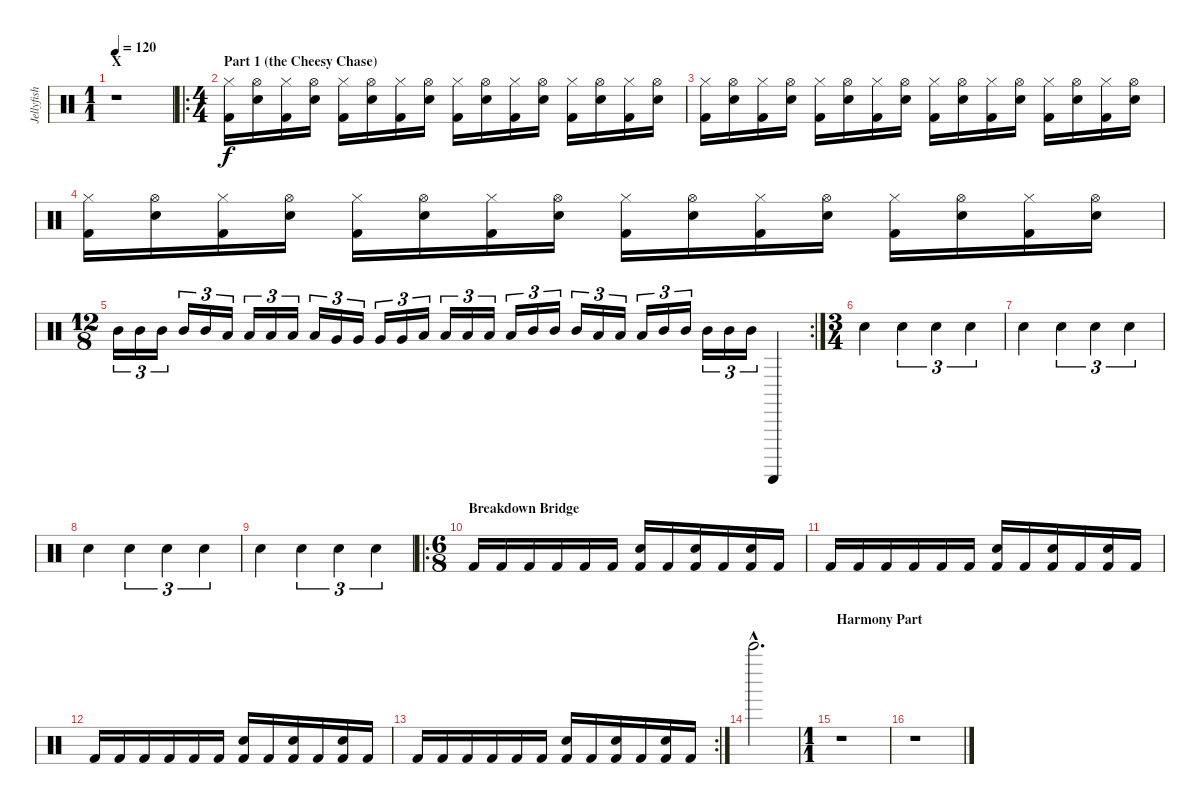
\track ("Jellyfish" "Jellyfish") {instrument percussion}
\staff {score}
\articulation defaults
\ts (1 1)
\section ("" "X")
\tempo 120
\clef neutral
\ks c
r.1{dy f} |
\ro
\ts (4 4)
\section ("" "Part 1 (the Cheesy Chase)")
("Hi-Hat (closed)" "Kick (hit) 2").16 ("Hi-Hat (open)" "Snare (hit) 2").16 ("Hi-Hat (closed)" "Kick (hit) 2").16 ("Hi-Hat (open)" "Snare (hit) 2").16 ("Hi-Hat (closed)" "Kick (hit) 2").16 ("Hi-Hat (open)" "Snare (hit) 2").16 ("Hi-Hat (closed)" "Kick (hit) 2").16 ("Hi-Hat (open)" "Snare (hit) 2").16 ("Hi-Hat (closed)" "Kick (hit) 2").16 ("Hi-Hat (open)" "Snare (hit) 2").16 ("Hi-Hat (closed)" "Kick (hit) 2").16 ("Hi-Hat (open)" "Snare (hit) 2").16 ("Hi-Hat (closed)" "Kick (hit) 2").16 ("Hi-Hat (open)" "Snare (hit) 2").16 ("Hi-Hat (closed)" "Kick (hit) 2").16 ("Hi-Hat (open)" "Snare (hit) 2").16 |
("Hi-Hat (closed)" "Kick (hit) 2").16 ("Hi-Hat (open)" "Snare (hit) 2").16 ("Hi-Hat (closed)" "Kick (hit) 2").16 ("Hi-Hat (open)" "Snare (hit) 2").16 ("Hi-Hat (closed)" "Kick (hit) 2").16 ("Hi-Hat (open)" "Snare (hit) 2").16 ("Hi-Hat (closed)" "Kick (hit) 2").16 ("Hi-Hat (open)" "Snare (hit) 2").16 ("Hi-Hat (closed)" "Kick (hit) 2").16 ("Hi-Hat (open)" "Snare (hit) 2").16 ("Hi-Hat (closed)" "Kick (hit) 2").16 ("Hi-Hat (open)" "Snare (hit) 2").16 ("Hi-Hat (closed)" "Kick (hit) 2").16 ("Hi-Hat (open)" "Snare (hit) 2").16 ("Hi-Hat (closed)" "Kick (hit) 2").16 ("Hi-Hat (open)" "Snare (hit) 2").16 |
("Hi-Hat (closed)" "Kick (hit) 2").16 ("Hi-Hat (open)" "Snare (hit) 2").16 ("Hi-Hat (closed)" "Kick (hit) 2").16 ("Hi-Hat (open)" "Snare (hit) 2").16 ("Hi-Hat (closed)" "Kick (hit) 2").16 ("Hi-Hat (open)" "Snare (hit) 2").16 ("Hi-Hat (closed)" "Kick (hit) 2").16 ("Hi-Hat (open)" "Snare (hit) 2").16 ("Hi-Hat (closed)" "Kick (hit) 2").16 ("Hi-Hat (open)" "Snare (hit) 2").16 ("Hi-Hat (closed)" "Kick (hit) 2").16 ("Hi-Hat (open)" "Snare (hit) 2").16 ("Hi-Hat (closed)" "Kick (hit) 2").16 ("Hi-Hat (open)" "Snare (hit) 2").16 ("Hi-Hat (closed)" "Kick (hit) 2").16 ("Hi-Hat (open)" "Snare (hit) 2").16 |
\rc 2
\ts (12 8)
"Mid Tom (hit)".16{tu (3 2)} "Mid Tom (hit)".16{tu (3 2)} "Mid Tom (hit)".16{tu (3 2)} "Mid Tom (hit)".16{tu (3 2)} "Mid Tom (hit)".16{tu (3 2)} "Low Tom (hit)".16{tu (3 2)} "Low Tom (hit)".16{tu (3 2)} "Low Tom (hit)".16{tu (3 2)} "Low Tom (hit)".16{tu (3 2)} "Low Tom (hit)".16{tu (3 2)} "Very Low Tom (hit)".16{tu (3 2)} "Very Low Tom (hit)".16{tu (3 2)} "Very Low Tom (hit)".16{tu (3 2)} "Very Low Tom (hit)".16{tu (3 2)} "Low Floor Tom (hit)".16{tu (3 2)} "Low Floor Tom (hit)".16{tu (3 2)} "Low Floor Tom (hit)".16{tu (3 2)} "Low Floor Tom (hit)".16{tu (3 2)} "Low Tom (hit)".16{tu (3 2)} "Mid Tom (hit)".16{tu (3 2)} "Mid Tom (hit)".16{tu (3 2)} "Mid Tom (hit)".16{tu (3 2)} "Low Tom (hit)".16{tu (3 2)} "Low Tom (hit)".16{tu (3 2)} "Low Tom (hit)".16{tu (3 2)} "Mid Tom (hit)".16{tu (3 2)} "Mid Tom (hit)".16{tu (3 2)} "Mid Tom (hit)".16{tu (3 2)} "Mid Tom (hit)".16{tu (3 2)} "Mid Tom (hit)".16{tu (3 2)} "Guiro (scrap-return)".4 |
\ts (3 4)
"Snare (hit) 2".4 "Snare (hit) 2".4{tu (3 2)} "Snare (hit) 2".4{tu (3 2)} "Snare (hit) 2".4{tu (3 2)} |
"Snare (hit) 2".4 "Snare (hit) 2".4{tu (3 2)} "Snare (hit) 2".4{tu (3 2)} "Snare (hit) 2".4{tu (3 2)} |
"Snare (hit) 2".4 "Snare (hit) 2".4{tu (3 2)} "Snare (hit) 2".4{tu (3 2)} "Snare (hit) 2".4{tu (3 2)} |
"Snare (hit) 2".4 "Snare (hit) 2".4{tu (3 2)} "Snare (hit) 2".4{tu (3 2)} "Snare (hit) 2".4{tu (3 2)} |
\ro
\ts (6 8)
\section ("" "Breakdown Bridge")
"Kick (hit) 2".16 "Kick (hit) 2".16 "Kick (hit) 2".16 "Kick (hit) 2".16 "Kick (hit) 2".16 "Kick (hit) 2".16 ("Snare (hit) 2" "Kick (hit) 2").16 "Kick (hit) 2".16 ("Snare (hit) 2" "Kick (hit) 2").16 "Kick (hit) 2".16 ("Snare (hit) 2" "Kick (hit) 2").16 "Kick (hit) 2".16 |
"Kick (hit) 2".16 "Kick (hit) 2".16 "Kick (hit) 2".16 "Kick (hit) 2".16 "Kick (hit) 2".16 "Kick (hit) 2".16 ("Snare (hit) 2" "Kick (hit) 2").16 "Kick (hit) 2".16 ("Snare (hit) 2" "Kick (hit) 2").16 "Kick (hit) 2".16 ("Snare (hit) 2" "Kick (hit) 2").16 "Kick (hit) 2".16 |
"Kick (hit) 2".16 "Kick (hit) 2".16 "Kick (hit) 2".16 "Kick (hit) 2".16 "Kick (hit) 2".16 "Kick (hit) 2".16 ("Snare (hit) 2" "Kick (hit) 2").16 "Kick (hit) 2".16 ("Snare (hit) 2" "Kick (hit) 2").16 "Kick (hit) 2".16 ("Snare (hit) 2" "Kick (hit) 2").16 "Kick (hit) 2".16 |
\rc 2 "Kick (hit) 2".16 "Kick (hit) 2".16 "Kick (hit) 2".16 "Kick (hit) 2".16 "Kick (hit) 2".16 "Kick (hit) 2".16
("Snare (hit) 2" "Kick (hit) 2").16 "Kick (hit) 2".16 ("Snare (hit) 2" "Kick (hit) 2").16 "Kick (hit) 2".16 ("Snare (hit) 2" "Kick (hit) 2").16 "Kick (hit) 2".16 |
"Bell Tree (hit)"{be (custom 0 0 3 11 10 6 15 10 21 3 27 6 30 12 36 3 42 9 44 2 53 3 60 12) hac}.2{d} |
\ts (1 1)
\section ("" "Harmony Part")
r.1 |
r.1
